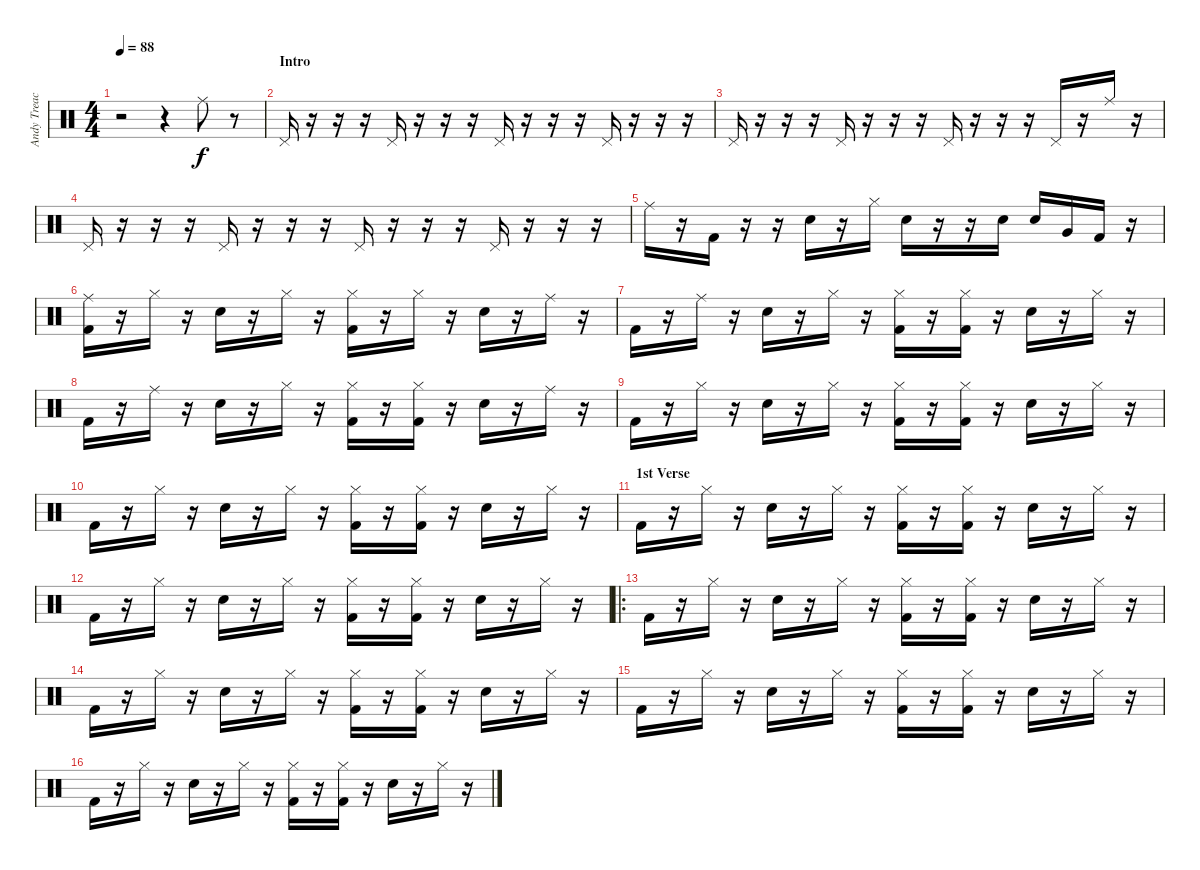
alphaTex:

\track ("Andy Treacey" "Andy Treac") {instrument percussion}
\staff {score}
\articulation defaults
\ts (4 4)
\tempo 88
\clef neutral
\ks c
r.2{dy f} r.4 "Ride (middle)".8 r.8 |
\section ("" "Intro")
"Pedal Hi-Hat (hit)".16 r.16 r.16 r.16 "Pedal Hi-Hat (hit)".16 r.16 r.16 r.16 "Pedal Hi-Hat (hit)".16 r.16 r.16 r.16 "Pedal Hi-Hat (hit)".16 r.16 r.16 r.16 |
"Pedal Hi-Hat (hit)".16 r.16 r.16 r.16 "Pedal Hi-Hat (hit)".16 r.16 r.16 r.16 "Pedal Hi-Hat (hit)".16 r.16 r.16 r.16 "Pedal Hi-Hat (hit)".16 r.16 "Ride (middle)".16 r.16 |
"Pedal Hi-Hat (hit)".16 r.16 r.16 r.16 "Pedal Hi-Hat (hit)".16 r.16 r.16 r.16 "Pedal Hi-Hat (hit)".16 r.16 r.16 r.16 "Pedal Hi-Hat (hit)".16 r.16 r.16 r.16 |
"Ride (middle)".16 r.16 "Kick (hit) 2".16 r.16 r.16 "Electric Snare (hit)".16 r.16 "Hi-Hat (closed)".16 "Electric Snare (hit)".16 r.16 r.16 "Electric Snare (hit)".16 "Electric Snare (hit)".16 "Very Low Tom (hit)".16 "Kick (hit) 2".16 r.16 |
("Ride (middle)" "Kick (hit) 2").16 r.16 "Hi-Hat (closed)".16 r.16 "Electric Snare (hit)".16 r.16 "Hi-Hat (closed)".16 r.16 ("Hi-Hat (closed)" "Kick (hit) 2").16 r.16 "Hi-Hat (closed)".16 r.16 "Electric Snare (hit)".16 r.16 "Ride (middle)".16 r.16 |
"Kick (hit) 2".16 r.16 "Ride (middle)".16 r.16 "Electric Snare (hit)".16 r.16 "Hi-Hat (closed)".16 r.16 ("Hi-Hat (closed)" "Kick (hit) 2").16 r.16 ("Hi-Hat (closed)" "Kick (hit) 2").16 r.16 "Electric Snare (hit)".16 r.16 "Hi-Hat (closed)".16 r.16 |
"Kick (hit) 2".16 r.16 "Ride (middle)".16 r.16 "Electric Snare (hit)".16 r.16 "Hi-Hat (closed)".16 r.16 ("Hi-Hat (closed)" "Kick (hit) 2").16 r.16 ("Hi-Hat (closed)" "Kick (hit) 2").16 r.16 "Electric Snare (hit)".16 r.16 "Ride (middle)".16 r.16 |
"Kick (hit) 2".16 r.16 "Hi-Hat (closed)".16 r.16 "Electric Snare (hit)".16 r.16 "Hi-Hat (closed)".16 r.16 ("Hi-Hat (closed)" "Kick (hit) 2").16 r.16 ("Hi-Hat (closed)" "Kick (hit) 2").16 r.16 "Electric Snare (hit)".16 r.16 "Hi-Hat (closed)".16 r.16 |
"Kick (hit) 2".16 r.16 "Hi-Hat (closed)".16 r.16 "Electric Snare (hit)".16 r.16 "Hi-Hat (closed)".16 r.16 ("Hi-Hat (closed)" "Kick (hit) 2").16 r.16 ("Hi-Hat (closed)" "Kick (hit) 2").16 r.16 "Electric Snare (hit)".16 r.16 "Hi-Hat (closed)".16 r.16 |
\section ("" "1st Verse")
"Kick (hit) 2".16 r.16 "Hi-Hat (closed)".16 r.16 "Electric Snare (hit)".16 r.16 "Hi-Hat (closed)".16 r.16 ("Hi-Hat (closed)" "Kick (hit) 2").16 r.16 ("Hi-Hat (closed)" "Kick (hit) 2").16 r.16 "Electric Snare (hit)".16 r.16 "Hi-Hat (closed)".16 r.16 |
"Kick (hit) 2".16 r.16 "Hi-Hat (closed)".16 r.16 "Electric Snare (hit)".16 r.16 "Hi-Hat (closed)".16 r.16 ("Hi-Hat (closed)" "Kick (hit) 2").16 r.16 ("Hi-Hat (closed)" "Kick (hit) 2").16 r.16 "Electric Snare (hit)".16 r.16 "Hi-Hat (closed)".16 r.16 |
\ro "Kick (hit) 2".16
r.16 "Hi-Hat (closed)".16 r.16 "Electric Snare (hit)".16 r.16 "Hi-Hat (closed)".16 r.16 ("Hi-Hat (closed)" "Kick (hit) 2").16 r.16 ("Hi-Hat (closed)" "Kick (hit) 2").16 r.16 "Electric Snare (hit)".16 r.16 "Hi-Hat (closed)".16 r.16 |
"Kick (hit) 2".16 r.16 "Hi-Hat (closed)".16 r.16 "Electric Snare (hit)".16 r.16 "Hi-Hat (closed)".16 r.16 ("Hi-Hat (closed)" "Kick (hit) 2").16 r.16 ("Hi-Hat (closed)" "Kick (hit) 2").16 r.16 "Electric Snare (hit)".16 r.16 "Hi-Hat (closed)".16 r.16 |
"Kick (hit) 2".16 r.16 "Hi-Hat (closed)".16 r.16 "Electric Snare (hit)".16 r.16 "Hi-Hat (closed)".16 r.16 ("Hi-Hat (closed)" "Kick (hit) 2").16 r.16 ("Hi-Hat (closed)" "Kick (hit) 2").16 r.16 "Electric Snare (hit)".16 r.16 "Hi-Hat (closed)".16 r.16 |
"Kick (hit) 2".16 r.16 "Hi-Hat (closed)".16 r.16 "Electric Snare (hit)".16 r.16 "Hi-Hat (closed)".16 r.16 ("Hi-Hat (closed)" "Kick (hit) 2").16 r.16 ("Hi-Hat (closed)" "Kick (hit) 2").16 r.16 "Electric Snare (hit)".16 r.16 "Hi-Hat (closed)".16 r.16
